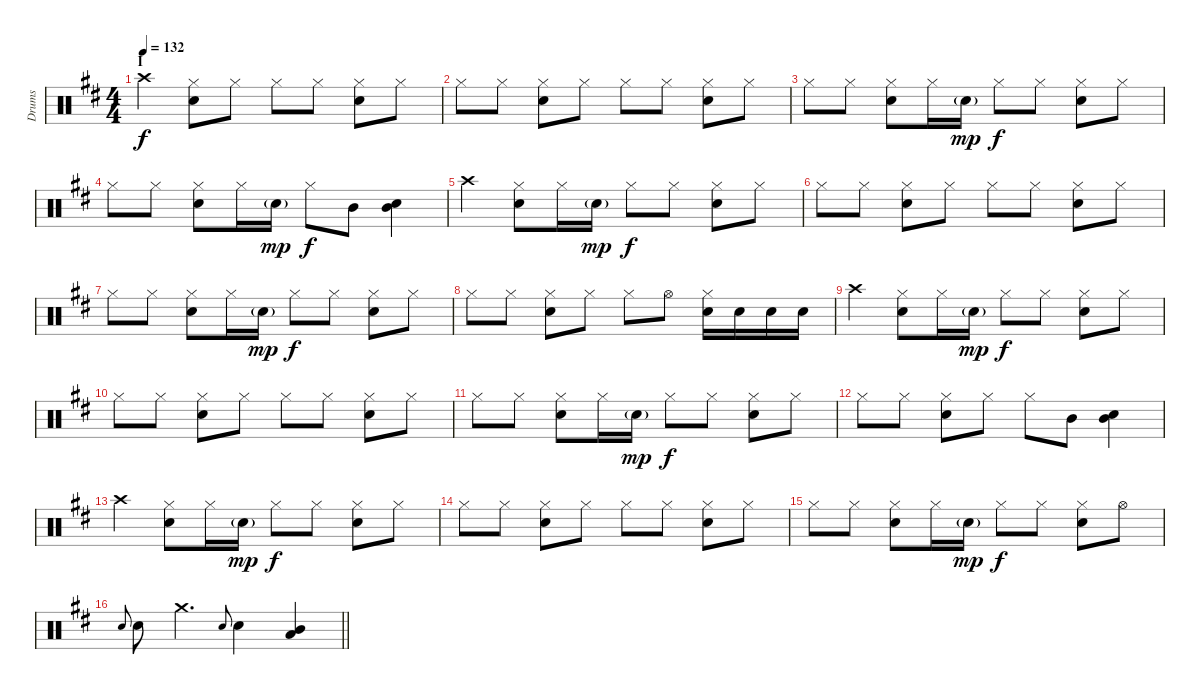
\track ("Drums" "Drums") {instrument percussion}
\staff {score}
\articulation defaults
\ts (4 4)
\section ("" "I")
\tempo 132
\clef neutral
\ks d "Crash high (hit)".4{dy f}
("Hi-Hat (closed)" "Snare (hit) 2").8 "Hi-Hat (closed)".8 "Hi-Hat (closed)".8 "Hi-Hat (closed)".8 ("Hi-Hat (closed)" "Snare (hit) 2").8 "Hi-Hat (closed)".8 |
"Hi-Hat (closed)".8 "Hi-Hat (closed)".8 ("Hi-Hat (closed)" "Snare (hit) 2").8 "Hi-Hat (closed)".8 "Hi-Hat (closed)".8 "Hi-Hat (closed)".8 ("Hi-Hat (closed)" "Snare (hit) 2").8 "Hi-Hat (closed)".8 |
"Hi-Hat (closed)".8 "Hi-Hat (closed)".8 ("Hi-Hat (closed)" "Snare (hit) 2").8 "Hi-Hat (closed)".16 "Snare (hit) 2"{g}.16{dy mp} "Hi-Hat (closed)".8{dy f} "Hi-Hat (closed)".8 ("Hi-Hat (closed)" "Snare (hit) 2").8 "Hi-Hat (closed)".8 |
"Hi-Hat (closed)".8 "Hi-Hat (closed)".8 ("Hi-Hat (closed)" "Snare (hit) 2").8 "Hi-Hat (closed)".16 "Snare (hit) 2"{g}.16{dy mp} "Hi-Hat (closed)".8{dy f} "Mid Tom (hit)".8 ("Mid Tom (hit)" "Snare (hit) 2").4 |
"Crash high (hit)".4 ("Hi-Hat (closed)" "Snare (hit) 2").8 "Hi-Hat (closed)".16 "Snare (hit) 2"{g}.16{dy mp} "Hi-Hat (closed)".8{dy f} "Hi-Hat (closed)".8 ("Hi-Hat (closed)" "Snare (hit) 2").8 "Hi-Hat (closed)".8 |
"Hi-Hat (closed)".8 "Hi-Hat (closed)".8 ("Hi-Hat (closed)" "Snare (hit) 2").8 "Hi-Hat (closed)".8 "Hi-Hat (closed)".8 "Hi-Hat (closed)".8 ("Hi-Hat (closed)" "Snare (hit) 2").8 "Hi-Hat (closed)".8 |
"Hi-Hat (closed)".8 "Hi-Hat (closed)".8 ("Hi-Hat (closed)" "Snare (hit) 2").8 "Hi-Hat (closed)".16 "Snare (hit) 2"{g}.16{dy mp} "Hi-Hat (closed)".8{dy f} "Hi-Hat (closed)".8 ("Hi-Hat (closed)" "Snare (hit) 2").8 "Hi-Hat (closed)".8 |
"Hi-Hat (closed)".8 "Hi-Hat (closed)".8 ("Hi-Hat (closed)" "Snare (hit) 2").8 "Hi-Hat (closed)".8 "Hi-Hat (closed)".8 "Hi-Hat (open)".8 ("Hi-Hat (closed)" "Snare (hit) 2").16 "Snare (hit) 2".16 "Snare (hit) 2".16 "Snare (hit) 2".16 |
"Crash high (hit)".4 ("Hi-Hat (closed)" "Snare (hit) 2").8 "Hi-Hat (closed)".16 "Snare (hit) 2"{g}.16{dy mp} "Hi-Hat (closed)".8{dy f} "Hi-Hat (closed)".8 ("Hi-Hat (closed)" "Snare (hit) 2").8 "Hi-Hat (closed)".8 |
"Hi-Hat (closed)".8 "Hi-Hat (closed)".8 ("Hi-Hat (closed)" "Snare (hit) 2").8 "Hi-Hat (closed)".8 "Hi-Hat (closed)".8 "Hi-Hat (closed)".8 ("Hi-Hat (closed)" "Snare (hit) 2").8 "Hi-Hat (closed)".8 |
"Hi-Hat (closed)".8 "Hi-Hat (closed)".8 ("Hi-Hat (closed)" "Snare (hit) 2").8 "Hi-Hat (closed)".16 "Snare (hit) 2"{g}.16{dy mp} "Hi-Hat (closed)".8{dy f} "Hi-Hat (closed)".8 ("Hi-Hat (closed)" "Snare (hit) 2").8 "Hi-Hat (closed)".8 |
"Hi-Hat (closed)".8 "Hi-Hat (closed)".8 ("Hi-Hat (closed)" "Snare (hit) 2").8 "Hi-Hat (closed)".8 "Hi-Hat (closed)".8 "Mid Tom (hit)".8 ("Mid Tom (hit)" "Snare (hit) 2").4 |
"Crash high (hit)".4 ("Hi-Hat (closed)" "Snare (hit) 2").8 "Hi-Hat (closed)".16 "Snare (hit) 2"{g}.16{dy mp} "Hi-Hat (closed)".8{dy f} "Hi-Hat (closed)".8 ("Hi-Hat (closed)" "Snare (hit) 2").8 "Hi-Hat (closed)".8 |
"Hi-Hat (closed)".8 "Hi-Hat (closed)".8 ("Hi-Hat (closed)" "Snare (hit) 2").8 "Hi-Hat (closed)".8 "Hi-Hat (closed)".8 "Hi-Hat (closed)".8 ("Hi-Hat (closed)" "Snare (hit) 2").8 "Hi-Hat (closed)".8 |
"Hi-Hat (closed)".8 "Hi-Hat (closed)".8 ("Hi-Hat (closed)" "Snare (hit) 2").8 "Hi-Hat (closed)".16 "Snare (hit) 2"{g}.16{dy mp} "Hi-Hat (closed)".8{dy f} "Hi-Hat (closed)".8 ("Hi-Hat (closed)" "Snare (hit) 2").8 "Hi-Hat (open)".8 |
\barLineRight lightlight "Snare (hit) 2".8{gr onbeat} "Snare (hit) 2".8 "Crash medium (hit)".4{d} "Snare (hit) 2".8{gr onbeat} "Snare (hit) 2".4
("Mid Tom (hit)" "Low Tom (hit)").4
